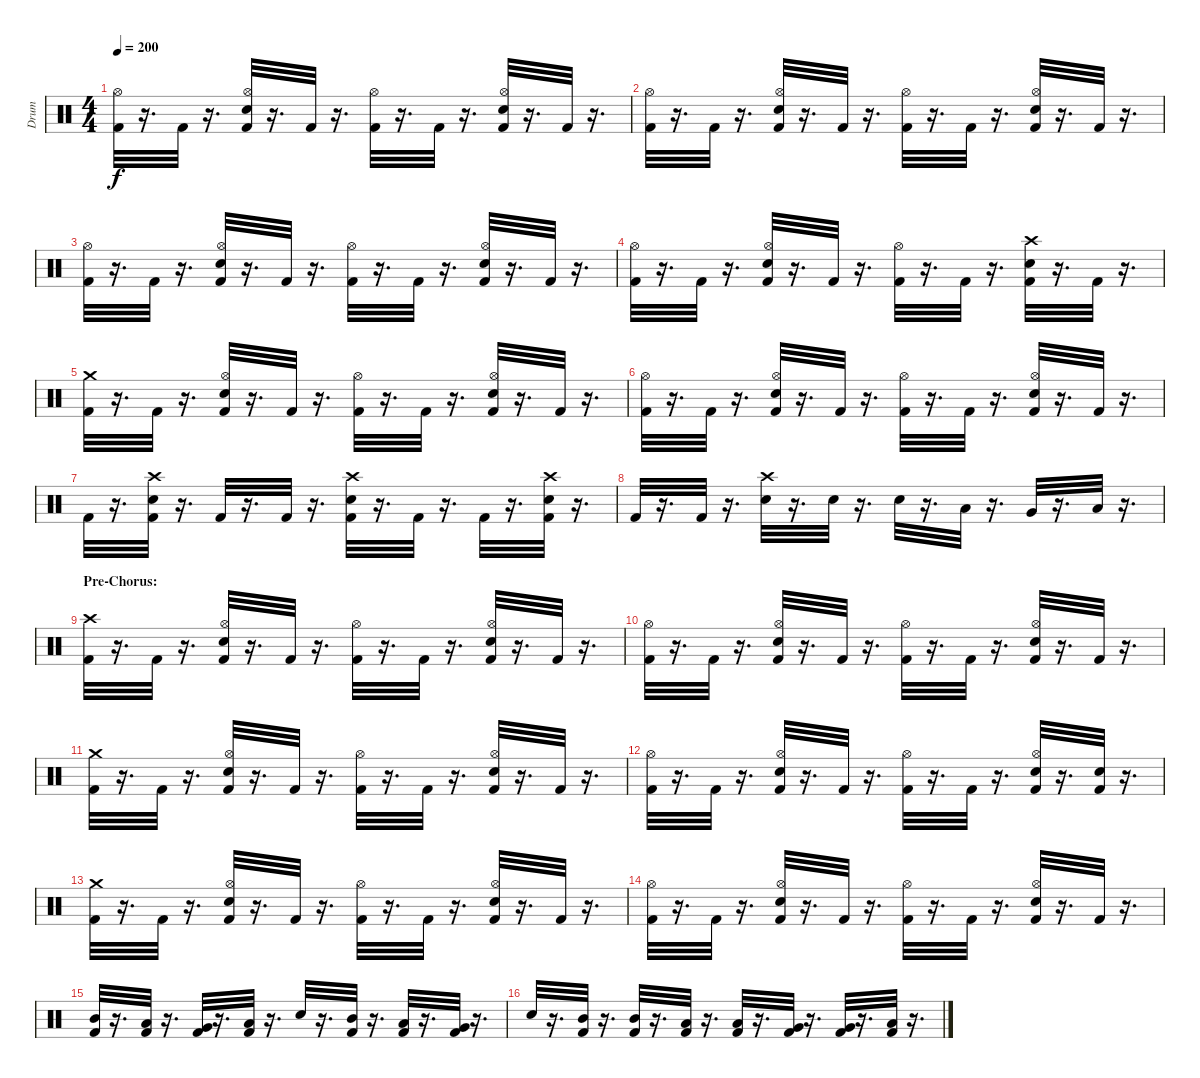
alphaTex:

\track ("Drum" "Drum") {instrument percussion}
\staff {score}
\articulation defaults
\ts (4 4)
\tempo 200
\clef neutral
\ks c
("Kick (hit) 2" "Hi-Hat (open)").32{dy f} r.16{d} "Kick (hit) 2".32 r.16{d} ("Kick (hit) 2" "Hi-Hat (open)" "Snare (hit) 2").32 r.16{d} "Kick (hit) 2".32 r.16{d} ("Kick (hit) 2" "Hi-Hat (open)").32 r.16{d} "Kick (hit) 2".32 r.16{d} ("Kick (hit) 2" "Hi-Hat (open)" "Snare (hit) 2").32 r.16{d} "Kick (hit) 2".32 r.16{d} |
("Kick (hit) 2" "Hi-Hat (open)").32 r.16{d} "Kick (hit) 2".32 r.16{d} ("Kick (hit) 2" "Hi-Hat (open)" "Snare (hit) 2").32 r.16{d} "Kick (hit) 2".32 r.16{d} ("Kick (hit) 2" "Hi-Hat (open)").32 r.16{d} "Kick (hit) 2".32 r.16{d} ("Kick (hit) 2" "Hi-Hat (open)" "Snare (hit) 2").32 r.16{d} "Kick (hit) 2".32 r.16{d} |
("Kick (hit) 2" "Hi-Hat (open)").32 r.16{d} "Kick (hit) 2".32 r.16{d} ("Kick (hit) 2" "Hi-Hat (open)" "Snare (hit) 2").32 r.16{d} "Kick (hit) 2".32 r.16{d} ("Kick (hit) 2" "Hi-Hat (open)").32 r.16{d} "Kick (hit) 2".32 r.16{d} ("Kick (hit) 2" "Hi-Hat (open)" "Snare (hit) 2").32 r.16{d} "Kick (hit) 2".32 r.16{d} |
("Kick (hit) 2" "Hi-Hat (open)").32 r.16{d} "Kick (hit) 2".32 r.16{d} ("Kick (hit) 2" "Hi-Hat (open)" "Snare (hit) 2").32 r.16{d} "Kick (hit) 2".32 r.16{d} ("Kick (hit) 2" "Hi-Hat (open)").32 r.16{d} "Kick (hit) 2".32 r.16{d} ("Kick (hit) 2" "Snare (hit) 2" "Crash high (hit)").32 r.16{d} "Kick (hit) 2".32 r.16{d} |
("Kick (hit) 2" "Crash medium (hit)").32 r.16{d} "Kick (hit) 2".32 r.16{d} ("Kick (hit) 2" "Hi-Hat (open)" "Snare (hit) 2").32 r.16{d} "Kick (hit) 2".32 r.16{d} ("Kick (hit) 2" "Hi-Hat (open)").32 r.16{d} "Kick (hit) 2".32 r.16{d} ("Kick (hit) 2" "Hi-Hat (open)" "Snare (hit) 2").32 r.16{d} "Kick (hit) 2".32 r.16{d} |
("Kick (hit) 2" "Hi-Hat (open)").32 r.16{d} "Kick (hit) 2".32 r.16{d} ("Kick (hit) 2" "Hi-Hat (open)" "Snare (hit) 2").32 r.16{d} "Kick (hit) 2".32 r.16{d} ("Kick (hit) 2" "Hi-Hat (open)").32 r.16{d} "Kick (hit) 2".32 r.16{d} ("Kick (hit) 2" "Hi-Hat (open)" "Snare (hit) 2").32 r.16{d} "Kick (hit) 2".32 r.16{d} |
"Kick (hit) 2".32 r.16{d} ("Kick (hit) 2" "Snare (hit) 2" "Crash high (hit)").32 r.16{d} "Kick (hit) 2".32 r.16{d} "Kick (hit) 2".32 r.16{d} ("Kick (hit) 2" "Crash high (hit)" "Snare (hit) 2").32 r.16{d} "Kick (hit) 2".32 r.16{d} "Kick (hit) 2".32 r.16{d} ("Kick (hit) 2" "Crash high (hit)" "Snare (hit) 2").32 r.16{d} |
"Kick (hit) 2".32 r.16{d} "Kick (hit) 2".32 r.16{d} ("Snare (hit) 2" "Crash high (hit)").32 r.16{d} "Snare (hit) 2".32 r.16{d} "Snare (hit) 2".32 r.16{d} "Low Tom (hit)".32 r.16{d} "Very Low Tom (hit)".32 r.16{d} "Low Floor Tom (hit)".32 r.16{d} |
\section ("" "Pre-Chorus:")
("Kick (hit) 2" "Crash high (hit)").32 r.16{d} "Kick (hit) 2".32 r.16{d} ("Kick (hit) 2" "Hi-Hat (open)" "Snare (hit) 2").32 r.16{d} "Kick (hit) 2".32 r.16{d} ("Kick (hit) 2" "Hi-Hat (open)").32 r.16{d} "Kick (hit) 2".32 r.16{d} ("Kick (hit) 2" "Hi-Hat (open)" "Snare (hit) 2").32 r.16{d} "Kick (hit) 2".32 r.16{d} |
("Kick (hit) 2" "Hi-Hat (open)").32 r.16{d} "Kick (hit) 2".32 r.16{d} ("Kick (hit) 2" "Hi-Hat (open)" "Snare (hit) 2").32 r.16{d} "Kick (hit) 2".32 r.16{d} ("Kick (hit) 2" "Hi-Hat (open)").32 r.16{d} "Kick (hit) 2".32 r.16{d} ("Hi-Hat (open)" "Kick (hit) 2" "Snare (hit) 2").32 r.16{d} "Kick (hit) 2".32 r.16{d} |
("Kick (hit) 2" "Crash medium (hit)").32 r.16{d} "Kick (hit) 2".32 r.16{d} ("Kick (hit) 2" "Hi-Hat (open)" "Snare (hit) 2").32 r.16{d} "Kick (hit) 2".32 r.16{d} ("Kick (hit) 2" "Hi-Hat (open)").32 r.16{d} "Kick (hit) 2".32 r.16{d} ("Kick (hit) 2" "Hi-Hat (open)" "Snare (hit) 2").32 r.16{d} "Kick (hit) 2".32 r.16{d} |
("Kick (hit) 2" "Hi-Hat (open)").32 r.16{d} "Kick (hit) 2".32 r.16{d} ("Kick (hit) 2" "Hi-Hat (open)" "Snare (hit) 2").32 r.16{d} "Kick (hit) 2".32 r.16{d} ("Kick (hit) 2" "Hi-Hat (open)").32 r.16{d} "Kick (hit) 2".32 r.16{d} ("Hi-Hat (open)" "Kick (hit) 2" "Snare (hit) 2").32 r.16{d} ("Snare (hit) 2" "Kick (hit) 2").32 r.16{d} |
("Kick (hit) 2" "Crash medium (hit)").32 r.16{d} "Kick (hit) 2".32 r.16{d} ("Kick (hit) 2" "Hi-Hat (open)" "Snare (hit) 2").32 r.16{d} "Kick (hit) 2".32 r.16{d} ("Kick (hit) 2" "Hi-Hat (open)").32 r.16{d} "Kick (hit) 2".32 r.16{d} ("Kick (hit) 2" "Hi-Hat (open)" "Snare (hit) 2").32 r.16{d} "Kick (hit) 2".32 r.16{d} |
("Kick (hit) 2" "Hi-Hat (open)").32 r.16{d} "Kick (hit) 2".32 r.16{d} ("Kick (hit) 2" "Hi-Hat (open)" "Snare (hit) 2").32 r.16{d} "Kick (hit) 2".32 r.16{d} ("Kick (hit) 2" "Hi-Hat (open)").32 r.16{d} "Kick (hit) 2".32 r.16{d} ("Kick (hit) 2" "Hi-Hat (open)" "Snare (hit) 2").32 r.16{d} "Kick (hit) 2".32 r.16{d} |
("Kick (hit) 2" "Mid Tom (hit)").32 r.16{d} ("Kick (hit) 2" "Low Tom (hit)").32 r.16{d} ("Kick (hit) 2" "Very Low Tom (hit)").32 r.16{d} ("Kick (hit) 2" "Low Floor Tom (hit)").32 r.16{d} "Snare (hit) 2".32 r.16{d} ("Kick (hit) 2" "Mid Tom (hit)").32 r.16{d} ("Kick (hit) 2" "Low Tom (hit)").32 r.16{d} ("Kick (hit) 2" "Very Low Tom (hit)").32 r.16{d} |
"Snare (hit) 2".32 r.16{d} ("Kick (hit) 2" "Mid Tom (hit)").32 r.16{d} ("Kick (hit) 2" "Mid Tom (hit)").32 r.16{d} ("Kick (hit) 2" "Low Tom (hit)").32 r.16{d} ("Kick (hit) 2" "Low Tom (hit)").32 r.16{d} ("Kick (hit) 2" "Very Low Tom (hit)").32 r.16{d} ("Kick (hit) 2" "Very Low Tom (hit)").32 r.16{d} ("Kick (hit) 2" "Low Floor Tom (hit)").32 r.16{d}
